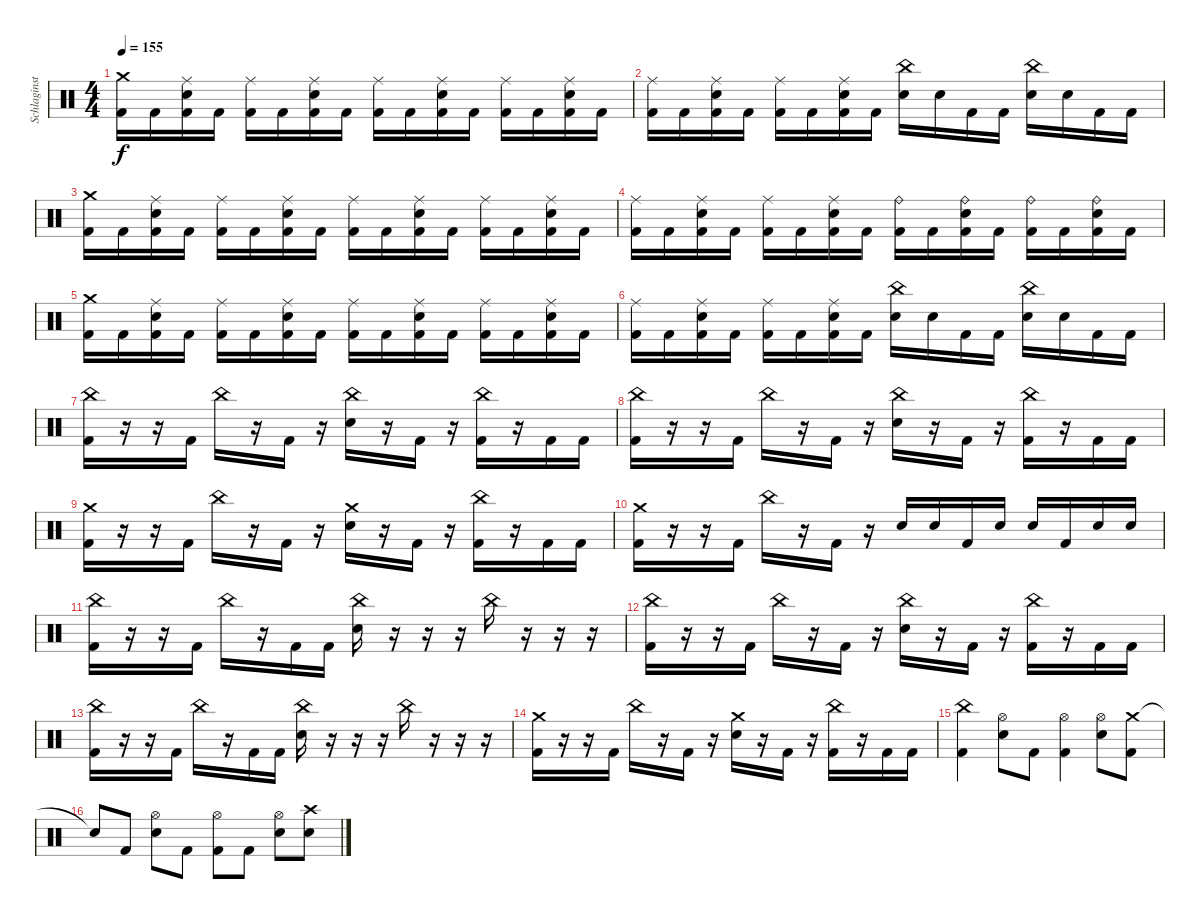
\track ("Schlaginstrumente - Auswahl" "Schlaginst") {instrument percussion}
\staff {score}
\articulation defaults
\ts (4 4)
\tempo 155
\clef neutral
\ks c
("Crash medium (hit)" "Kick (hit) 2").16{dy f} "Kick (hit) 2".16 ("Ride (middle)" "Electric Snare (hit)" "Kick (hit) 2").16 "Kick (hit) 2".16 ("Ride (middle)" "Kick (hit) 2").16 "Kick (hit) 2".16 ("Ride (middle)" "Electric Snare (hit)" "Kick (hit) 2").16 "Kick (hit) 2".16 ("Ride (middle)" "Kick (hit) 2").16 "Kick (hit) 2".16 ("Ride (middle)" "Electric Snare (hit)" "Kick (hit) 2").16 "Kick (hit) 2".16 ("Ride (middle)" "Kick (hit) 2").16 "Kick (hit) 2".16 ("Ride (middle)" "Electric Snare (hit)" "Kick (hit) 2").16 "Kick (hit) 2".16 |
("Ride (middle)" "Kick (hit) 2").16 "Kick (hit) 2".16 ("Ride (middle)" "Electric Snare (hit)" "Kick (hit) 2").16 "Kick (hit) 2".16 ("Ride (middle)" "Kick (hit) 2").16 "Kick (hit) 2".16 ("Ride (middle)" "Electric Snare (hit)" "Kick (hit) 2").16 "Kick (hit) 2".16 ("China (hit)" "Electric Snare (hit)").16 "Electric Snare (hit)".16 "Kick (hit) 2".16 "Kick (hit) 2".16 ("China (hit)" "Electric Snare (hit)").16 "Electric Snare (hit)".16 "Kick (hit) 2".16 "Kick (hit) 2".16 |
("Crash medium (hit)" "Kick (hit) 2").16 "Kick (hit) 2".16 ("Ride (middle)" "Electric Snare (hit)" "Kick (hit) 2").16 "Kick (hit) 2".16 ("Ride (middle)" "Kick (hit) 2").16 "Kick (hit) 2".16 ("Ride (middle)" "Electric Snare (hit)" "Kick (hit) 2").16 "Kick (hit) 2".16 ("Ride (middle)" "Kick (hit) 2").16 "Kick (hit) 2".16 ("Ride (middle)" "Electric Snare (hit)" "Kick (hit) 2").16 "Kick (hit) 2".16 ("Ride (middle)" "Kick (hit) 2").16 "Kick (hit) 2".16 ("Ride (middle)" "Electric Snare (hit)" "Kick (hit) 2").16 "Kick (hit) 2".16 |
("Ride (middle)" "Kick (hit) 2").16 "Kick (hit) 2".16 ("Ride (middle)" "Electric Snare (hit)" "Kick (hit) 2").16 "Kick (hit) 2".16 ("Ride (middle)" "Kick (hit) 2").16 "Kick (hit) 2".16 ("Ride (middle)" "Electric Snare (hit)" "Kick (hit) 2").16 "Kick (hit) 2".16 ("Ride (bell)" "Kick (hit) 2").16 "Kick (hit) 2".16 ("Ride (bell)" "Electric Snare (hit)" "Kick (hit) 2").16 "Kick (hit) 2".16 ("Ride (bell)" "Kick (hit) 2").16 "Kick (hit) 2".16 ("Ride (bell)" "Electric Snare (hit)" "Kick (hit) 2").16 "Kick (hit) 2".16 |
("Crash medium (hit)" "Kick (hit) 2").16 "Kick (hit) 2".16 ("Ride (middle)" "Electric Snare (hit)" "Kick (hit) 2").16 "Kick (hit) 2".16 ("Ride (middle)" "Kick (hit) 2").16 "Kick (hit) 2".16 ("Ride (middle)" "Electric Snare (hit)" "Kick (hit) 2").16 "Kick (hit) 2".16 ("Ride (middle)" "Kick (hit) 2").16 "Kick (hit) 2".16 ("Ride (middle)" "Electric Snare (hit)" "Kick (hit) 2").16 "Kick (hit) 2".16 ("Ride (middle)" "Kick (hit) 2").16 "Kick (hit) 2".16 ("Ride (middle)" "Electric Snare (hit)" "Kick (hit) 2").16 "Kick (hit) 2".16 |
("Ride (middle)" "Kick (hit) 2").16 "Kick (hit) 2".16 ("Ride (middle)" "Electric Snare (hit)" "Kick (hit) 2").16 "Kick (hit) 2".16 ("Ride (middle)" "Kick (hit) 2").16 "Kick (hit) 2".16 ("Ride (middle)" "Electric Snare (hit)" "Kick (hit) 2").16 "Kick (hit) 2".16 ("China (hit)" "Electric Snare (hit)").16 "Electric Snare (hit)".16 "Kick (hit) 2".16 "Kick (hit) 2".16 ("China (hit)" "Electric Snare (hit)").16 "Electric Snare (hit)".16 "Kick (hit) 2".16 "Kick (hit) 2".16 |
("China (hit)" "Kick (hit) 2").16 r.16 r.16 "Kick (hit) 2".16 "China (hit)".16 r.16 "Kick (hit) 2".16 r.16 ("China (hit)" "Electric Snare (hit)").16 r.16 "Kick (hit) 2".16 r.16 ("China (hit)" "Kick (hit) 2").16 r.16 "Kick (hit) 2".16 "Kick (hit) 2".16 |
("China (hit)" "Kick (hit) 2").16 r.16 r.16 "Kick (hit) 2".16 "China (hit)".16 r.16 "Kick (hit) 2".16 r.16 ("China (hit)" "Electric Snare (hit)").16 r.16 "Kick (hit) 2".16 r.16 ("China (hit)" "Kick (hit) 2").16 r.16 "Kick (hit) 2".16 "Kick (hit) 2".16 |
("Crash medium (hit)" "Kick (hit) 2").16 r.16 r.16 "Kick (hit) 2".16 "China (hit)".16 r.16 "Kick (hit) 2".16 r.16 ("Crash medium (hit)" "Electric Snare (hit)").16 r.16 "Kick (hit) 2".16 r.16 ("China (hit)" "Kick (hit) 2").16 r.16 "Kick (hit) 2".16 "Kick (hit) 2".16 |
("Crash medium (hit)" "Kick (hit) 2").16 r.16 r.16 "Kick (hit) 2".16 "China (hit)".16 r.16 "Kick (hit) 2".16 r.16 "Electric Snare (hit)".16 "Electric Snare (hit)".16 "Kick (hit) 2".16 "Electric Snare (hit)".16 "Electric Snare (hit)".16 "Kick (hit) 2".16 "Electric Snare (hit)".16 "Electric Snare (hit)".16 |
("China (hit)" "Kick (hit) 2").16 r.16 r.16 "Kick (hit) 2".16 "China (hit)".16 r.16 "Kick (hit) 2".16 "Kick (hit) 2".16 ("China (hit)" "Electric Snare (hit)").16 r.16 r.16 r.16 "China (hit)".16 r.16 r.16 r.16 |
("China (hit)" "Kick (hit) 2").16 r.16 r.16 "Kick (hit) 2".16 "China (hit)".16 r.16 "Kick (hit) 2".16 r.16 ("China (hit)" "Electric Snare (hit)").16 r.16 "Kick (hit) 2".16 r.16 ("China (hit)" "Kick (hit) 2").16 r.16 "Kick (hit) 2".16 "Kick (hit) 2".16 |
("China (hit)" "Kick (hit) 2").16 r.16 r.16 "Kick (hit) 2".16 "China (hit)".16 r.16 "Kick (hit) 2".16 "Kick (hit) 2".16 ("China (hit)" "Electric Snare (hit)").16 r.16 r.16 r.16 "China (hit)".16 r.16 r.16 r.16 |
("Crash medium (hit)" "Kick (hit) 2").16 r.16 r.16 "Kick (hit) 2".16 "China (hit)".16 r.16 "Kick (hit) 2".16 r.16 ("Crash medium (hit)" "Electric Snare (hit)").16 r.16 "Kick (hit) 2".16 r.16 ("China (hit)" "Kick (hit) 2").16 r.16 "Kick (hit) 2".16 "Kick (hit) 2".16 |
("China (hit)" "Kick (hit) 2").4 ("Hi-Hat (open)" "Electric Snare (hit)").8 "Kick (hit) 2".8 ("Hi-Hat (open)" "Kick (hit) 2").4 ("Hi-Hat (open)" "Electric Snare (hit)").8 ("Crash medium (hit)" "Kick (hit) 2").8 |
"Snare (hit)"{t}.8 "Kick (hit) 2".8 ("Hi-Hat (open)" "Electric Snare (hit)").8 "Kick (hit) 2".8 ("Hi-Hat (open)" "Kick (hit) 2").8 "Kick (hit) 2".8 ("Hi-Hat (open)" "Electric Snare (hit)").8 ("Crash high (hit)" "Electric Snare (hit)").8
